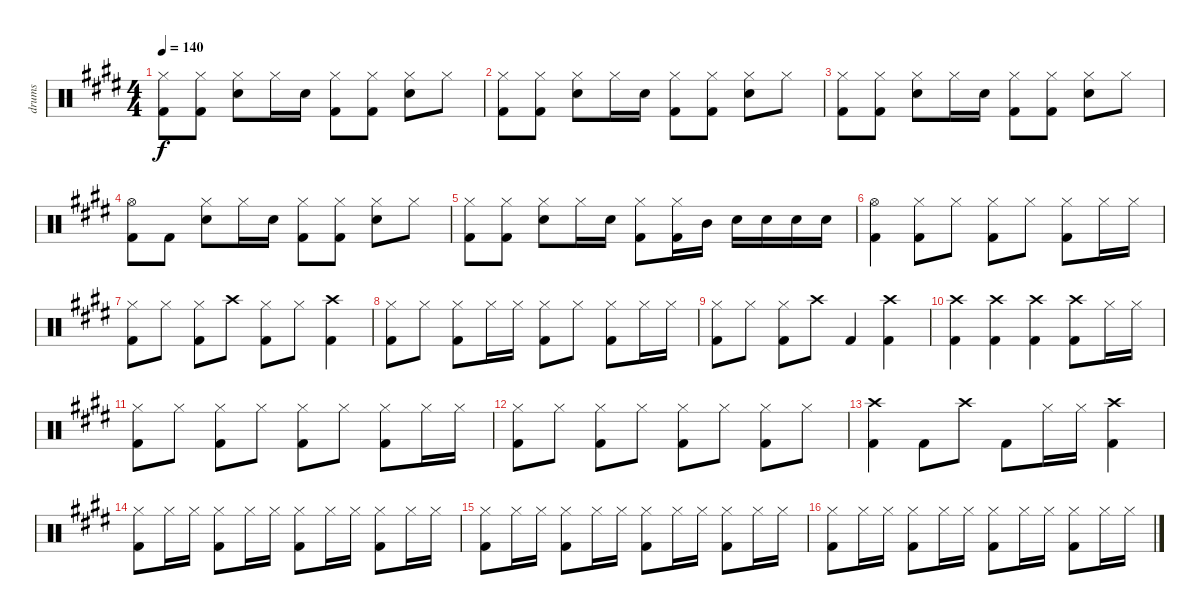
\track ("drums" "drums") {instrument percussion}
\staff {score}
\articulation defaults
\ts (4 4)
\tempo 140
\clef neutral
\ks e
("Hi-Hat (closed)" "Kick (hit) 2").8{dy f} ("Hi-Hat (closed)" "Kick (hit) 2").8 ("Hi-Hat (closed)" "Snare (hit) 2").8 "Hi-Hat (closed)".16 "Snare (hit) 2".16 ("Hi-Hat (closed)" "Kick (hit) 2").8 ("Hi-Hat (closed)" "Kick (hit) 2").8 ("Hi-Hat (closed)" "Snare (hit) 2").8 "Hi-Hat (closed)".8 |
("Hi-Hat (closed)" "Kick (hit) 2").8 ("Hi-Hat (closed)" "Kick (hit) 2").8 ("Hi-Hat (closed)" "Snare (hit) 2").8 "Hi-Hat (closed)".16 "Snare (hit) 2".16 ("Hi-Hat (closed)" "Kick (hit) 2").8 ("Hi-Hat (closed)" "Kick (hit) 2").8 ("Hi-Hat (closed)" "Snare (hit) 2").8 "Hi-Hat (closed)".8 |
("Hi-Hat (closed)" "Kick (hit) 2").8 ("Hi-Hat (closed)" "Kick (hit) 2").8 ("Hi-Hat (closed)" "Snare (hit) 2").8 "Hi-Hat (closed)".16 "Snare (hit) 2".16 ("Hi-Hat (closed)" "Kick (hit) 2").8 ("Hi-Hat (closed)" "Kick (hit) 2").8 ("Hi-Hat (closed)" "Snare (hit) 2").8 "Hi-Hat (closed)".8 |
("Hi-Hat (open)" "Kick (hit) 2").8 "Kick (hit) 2".8 ("Hi-Hat (closed)" "Snare (hit) 2").8 "Hi-Hat (closed)".16 "Snare (hit) 2".16 ("Hi-Hat (closed)" "Kick (hit) 2").8 ("Hi-Hat (closed)" "Kick (hit) 2").8 ("Hi-Hat (closed)" "Snare (hit) 2").8 "Hi-Hat (closed)".8 |
("Hi-Hat (closed)" "Kick (hit) 2").8 ("Hi-Hat (closed)" "Kick (hit) 2").8 ("Hi-Hat (closed)" "Snare (hit) 2").8 "Hi-Hat (closed)".16 "Snare (hit) 2".16 ("Hi-Hat (closed)" "Kick (hit) 2").8 ("Hi-Hat (closed)" "Kick (hit) 2").16 "Mid Tom (hit)".16 "Snare (hit) 2".16 "Snare (hit) 2".16 "Snare (hit) 2".16 "Snare (hit) 2".16 |
("Hi-Hat (open)" "Kick (hit) 2").4 ("Hi-Hat (closed)" "Kick (hit) 2").8 "Hi-Hat (closed)".8 ("Hi-Hat (closed)" "Kick (hit) 2").8 "Hi-Hat (closed)".8 ("Hi-Hat (closed)" "Kick (hit) 2").8 "Hi-Hat (closed)".16 "Hi-Hat (closed)".16 |
("Hi-Hat (closed)" "Kick (hit) 2").8 "Hi-Hat (closed)".8 ("Hi-Hat (closed)" "Kick (hit) 2").8 "Crash high (hit)".8 ("Hi-Hat (closed)" "Kick (hit) 2").8 "Hi-Hat (closed)".8 ("Crash high (hit)" "Kick (hit) 2").4 |
("Hi-Hat (closed)" "Kick (hit) 2").8 "Hi-Hat (closed)".8 ("Hi-Hat (closed)" "Kick (hit) 2").8 "Hi-Hat (closed)".16 "Hi-Hat (closed)".16 ("Hi-Hat (closed)" "Kick (hit) 2").8 "Hi-Hat (closed)".8 ("Hi-Hat (closed)" "Kick (hit) 2").8 "Hi-Hat (closed)".16 "Hi-Hat (closed)".16 |
("Hi-Hat (closed)" "Kick (hit) 2").8 "Hi-Hat (closed)".8 ("Hi-Hat (closed)" "Kick (hit) 2").8 "Crash high (hit)".8 "Kick (hit) 2".4 ("Crash high (hit)" "Kick (hit) 2").4 |
("Crash high (hit)" "Kick (hit) 2").4 ("Crash high (hit)" "Kick (hit) 2").4 ("Crash high (hit)" "Kick (hit) 2").4 ("Crash high (hit)" "Kick (hit) 2").8 "Hi-Hat (closed)".16 "Hi-Hat (closed)".16 |
("Hi-Hat (closed)" "Kick (hit) 2").8 "Hi-Hat (closed)".8 ("Hi-Hat (closed)" "Kick (hit) 2").8 "Hi-Hat (closed)".8 ("Hi-Hat (closed)" "Kick (hit) 2").8 "Hi-Hat (closed)".8 ("Hi-Hat (closed)" "Kick (hit) 2").8 "Hi-Hat (closed)".16 "Hi-Hat (closed)".16 |
("Hi-Hat (closed)" "Kick (hit) 2").8 "Hi-Hat (closed)".8 ("Hi-Hat (closed)" "Kick (hit) 2").8 "Hi-Hat (closed)".8 ("Hi-Hat (closed)" "Kick (hit) 2").8 "Hi-Hat (closed)".8 ("Hi-Hat (closed)" "Kick (hit) 2").8 "Hi-Hat (closed)".8 |
("Crash high (hit)" "Kick (hit) 2").4 "Kick (hit) 2".8 "Crash high (hit)".8 "Kick (hit) 2".8 "Hi-Hat (closed)".16 "Hi-Hat (closed)".16 ("Crash high (hit)" "Kick (hit) 2").4 |
("Hi-Hat (closed)" "Kick (hit) 2").8 "Hi-Hat (closed)".16 "Hi-Hat (closed)".16 ("Hi-Hat (closed)" "Kick (hit) 2").8 "Hi-Hat (closed)".16 "Hi-Hat (closed)".16 ("Hi-Hat (closed)" "Kick (hit) 2").8 "Hi-Hat (closed)".16 "Hi-Hat (closed)".16 ("Hi-Hat (closed)" "Kick (hit) 2").8 "Hi-Hat (closed)".16 "Hi-Hat (closed)".16 |
("Hi-Hat (closed)" "Kick (hit) 2").8 "Hi-Hat (closed)".16 "Hi-Hat (closed)".16 ("Hi-Hat (closed)" "Kick (hit) 2").8 "Hi-Hat (closed)".16 "Hi-Hat (closed)".16 ("Hi-Hat (closed)" "Kick (hit) 2").8 "Hi-Hat (closed)".16 "Hi-Hat (closed)".16 ("Hi-Hat (closed)" "Kick (hit) 2").8 "Hi-Hat (closed)".16 "Hi-Hat (closed)".16 |
("Hi-Hat (closed)" "Kick (hit) 2").8 "Hi-Hat (closed)".16 "Hi-Hat (closed)".16 ("Hi-Hat (closed)" "Kick (hit) 2").8 "Hi-Hat (closed)".16 "Hi-Hat (closed)".16 ("Hi-Hat (closed)" "Kick (hit) 2").8 "Hi-Hat (closed)".16 "Hi-Hat (closed)".16 ("Hi-Hat (closed)" "Kick (hit) 2").8 "Hi-Hat (closed)".16 "Hi-Hat (closed)".16
